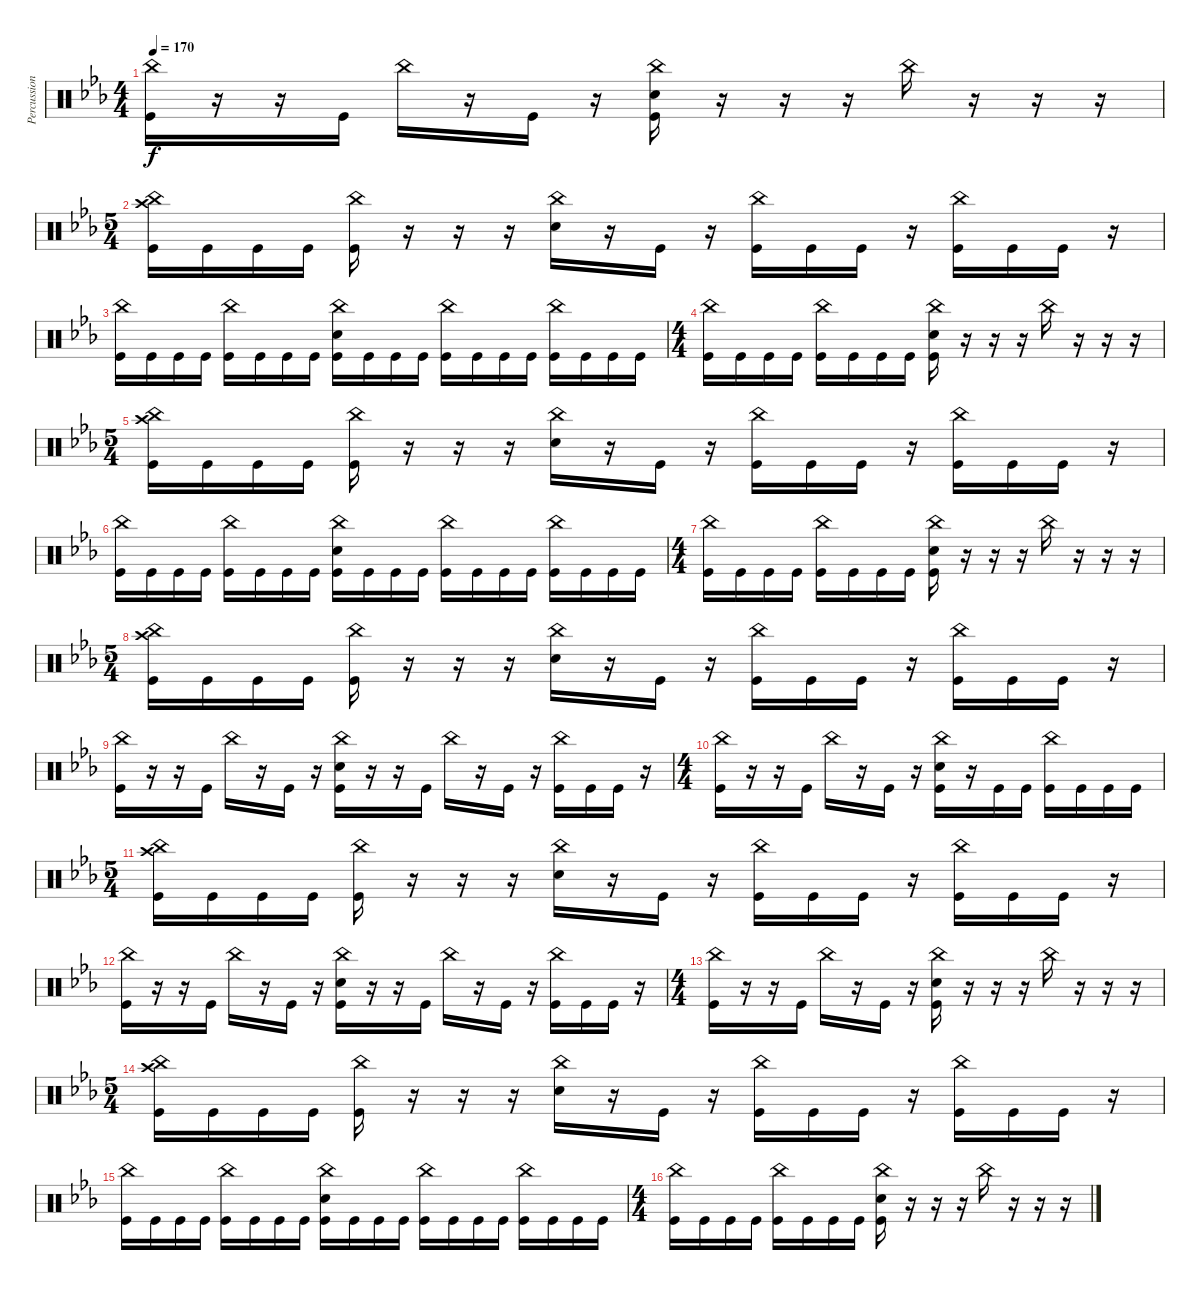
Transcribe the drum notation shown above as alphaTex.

\track ("Percussion" "Percussion") {instrument percussion}
\staff {score}
\articulation defaults
\ts (4 4)
\tempo 170
\clef neutral
\ks cminor
("China (hit)" "Kick (hit)").16{dy f} r.16 r.16 "Kick (hit)".16 "China (hit)".16 r.16 "Kick (hit)".16 r.16 ("China (hit)" "Snare (hit) 2" "Kick (hit)").16 r.16 r.16 r.16 "China (hit)".16 r.16 r.16 r.16 |
\ts (5 4)
("China (hit)" "Crash high (hit)" "Kick (hit)").16 "Kick (hit)".16 "Kick (hit)".16 "Kick (hit)".16 ("China (hit)" "Kick (hit)").16 r.16 r.16 r.16 ("China (hit)" "Snare (hit) 2").16 r.16 "Kick (hit)".16 r.16 ("China (hit)" "Kick (hit)").16 "Kick (hit)".16 "Kick (hit)".16 r.16 ("China (hit)" "Kick (hit)").16 "Kick (hit)".16 "Kick (hit)".16 r.16 |
("China (hit)" "Kick (hit)").16 "Kick (hit)".16 "Kick (hit)".16 "Kick (hit)".16 ("China (hit)" "Kick (hit)").16 "Kick (hit)".16 "Kick (hit)".16 "Kick (hit)".16 ("China (hit)" "Snare (hit) 2" "Kick (hit)").16 "Kick (hit)".16 "Kick (hit)".16 "Kick (hit)".16 ("China (hit)" "Kick (hit)").16 "Kick (hit)".16 "Kick (hit)".16 "Kick (hit)".16 ("China (hit)" "Kick (hit)").16 "Kick (hit)".16 "Kick (hit)".16 "Kick (hit)".16 |
\ts (4 4)
("China (hit)" "Kick (hit)").16 "Kick (hit)".16 "Kick (hit)".16 "Kick (hit)".16 ("China (hit)" "Kick (hit)").16 "Kick (hit)".16 "Kick (hit)".16 "Kick (hit)".16 ("China (hit)" "Snare (hit) 2" "Kick (hit)").16 r.16 r.16 r.16 "China (hit)".16 r.16 r.16 r.16 |
\ts (5 4)
("China (hit)" "Crash high (hit)" "Kick (hit)").16 "Kick (hit)".16 "Kick (hit)".16 "Kick (hit)".16 ("China (hit)" "Kick (hit)").16 r.16 r.16 r.16 ("China (hit)" "Snare (hit) 2").16 r.16 "Kick (hit)".16 r.16 ("China (hit)" "Kick (hit)").16 "Kick (hit)".16 "Kick (hit)".16 r.16 ("China (hit)" "Kick (hit)").16 "Kick (hit)".16 "Kick (hit)".16 r.16 |
("China (hit)" "Kick (hit)").16 "Kick (hit)".16 "Kick (hit)".16 "Kick (hit)".16 ("China (hit)" "Kick (hit)").16 "Kick (hit)".16 "Kick (hit)".16 "Kick (hit)".16 ("China (hit)" "Snare (hit) 2" "Kick (hit)").16 "Kick (hit)".16 "Kick (hit)".16 "Kick (hit)".16 ("China (hit)" "Kick (hit)").16 "Kick (hit)".16 "Kick (hit)".16 "Kick (hit)".16 ("China (hit)" "Kick (hit)").16 "Kick (hit)".16 "Kick (hit)".16 "Kick (hit)".16 |
\ts (4 4)
("China (hit)" "Kick (hit)").16 "Kick (hit)".16 "Kick (hit)".16 "Kick (hit)".16 ("China (hit)" "Kick (hit)").16 "Kick (hit)".16 "Kick (hit)".16 "Kick (hit)".16 ("China (hit)" "Snare (hit) 2" "Kick (hit)").16 r.16 r.16 r.16 "China (hit)".16 r.16 r.16 r.16 |
\ts (5 4)
("China (hit)" "Crash high (hit)" "Kick (hit)").16 "Kick (hit)".16 "Kick (hit)".16 "Kick (hit)".16 ("China (hit)" "Kick (hit)").16 r.16 r.16 r.16 ("China (hit)" "Snare (hit) 2").16 r.16 "Kick (hit)".16 r.16 ("China (hit)" "Kick (hit)").16 "Kick (hit)".16 "Kick (hit)".16 r.16 ("China (hit)" "Kick (hit)").16 "Kick (hit)".16 "Kick (hit)".16 r.16 |
("China (hit)" "Kick (hit)").16 r.16 r.16 "Kick (hit)".16 "China (hit)".16 r.16 "Kick (hit)".16 r.16 ("China (hit)" "Snare (hit) 2" "Kick (hit)").16 r.16 r.16 "Kick (hit)".16 "China (hit)".16 r.16 "Kick (hit)".16 r.16 ("China (hit)" "Kick (hit)").16 "Kick (hit)".16 "Kick (hit)".16 r.16 |
\ts (4 4)
("China (hit)" "Kick (hit)").16 r.16 r.16 "Kick (hit)".16 "China (hit)".16 r.16 "Kick (hit)".16 r.16 ("China (hit)" "Snare (hit) 2" "Kick (hit)").16 r.16 "Kick (hit)".16 "Kick (hit)".16 ("China (hit)" "Kick (hit)").16 "Kick (hit)".16 "Kick (hit)".16 "Kick (hit)".16 |
\ts (5 4)
("China (hit)" "Crash high (hit)" "Kick (hit)").16 "Kick (hit)".16 "Kick (hit)".16 "Kick (hit)".16 ("China (hit)" "Kick (hit)").16 r.16 r.16 r.16 ("China (hit)" "Snare (hit) 2").16 r.16 "Kick (hit)".16 r.16 ("China (hit)" "Kick (hit)").16 "Kick (hit)".16 "Kick (hit)".16 r.16 ("China (hit)" "Kick (hit)").16 "Kick (hit)".16 "Kick (hit)".16 r.16 |
("China (hit)" "Kick (hit)").16 r.16 r.16 "Kick (hit)".16 "China (hit)".16 r.16 "Kick (hit)".16 r.16 ("China (hit)" "Snare (hit) 2" "Kick (hit)").16 r.16 r.16 "Kick (hit)".16 "China (hit)".16 r.16 "Kick (hit)".16 r.16 ("China (hit)" "Kick (hit)").16 "Kick (hit)".16 "Kick (hit)".16 r.16 |
\ts (4 4)
("China (hit)" "Kick (hit)").16 r.16 r.16 "Kick (hit)".16 "China (hit)".16 r.16 "Kick (hit)".16 r.16 ("China (hit)" "Snare (hit) 2" "Kick (hit)").16 r.16 r.16 r.16 "China (hit)".16 r.16 r.16 r.16 |
\ts (5 4)
("China (hit)" "Crash high (hit)" "Kick (hit)").16 "Kick (hit)".16 "Kick (hit)".16 "Kick (hit)".16 ("China (hit)" "Kick (hit)").16 r.16 r.16 r.16 ("China (hit)" "Snare (hit) 2").16 r.16 "Kick (hit)".16 r.16 ("China (hit)" "Kick (hit)").16 "Kick (hit)".16 "Kick (hit)".16 r.16 ("China (hit)" "Kick (hit)").16 "Kick (hit)".16 "Kick (hit)".16 r.16 |
("China (hit)" "Kick (hit)").16 "Kick (hit)".16 "Kick (hit)".16 "Kick (hit)".16 ("China (hit)" "Kick (hit)").16 "Kick (hit)".16 "Kick (hit)".16 "Kick (hit)".16 ("China (hit)" "Snare (hit) 2" "Kick (hit)").16 "Kick (hit)".16 "Kick (hit)".16 "Kick (hit)".16 ("China (hit)" "Kick (hit)").16 "Kick (hit)".16 "Kick (hit)".16 "Kick (hit)".16 ("China (hit)" "Kick (hit)").16 "Kick (hit)".16 "Kick (hit)".16 "Kick (hit)".16 |
\ts (4 4)
("China (hit)" "Kick (hit)").16 "Kick (hit)".16 "Kick (hit)".16 "Kick (hit)".16 ("China (hit)" "Kick (hit)").16 "Kick (hit)".16 "Kick (hit)".16 "Kick (hit)".16 ("China (hit)" "Snare (hit) 2" "Kick (hit)").16 r.16 r.16 r.16 "China (hit)".16 r.16 r.16 r.16
